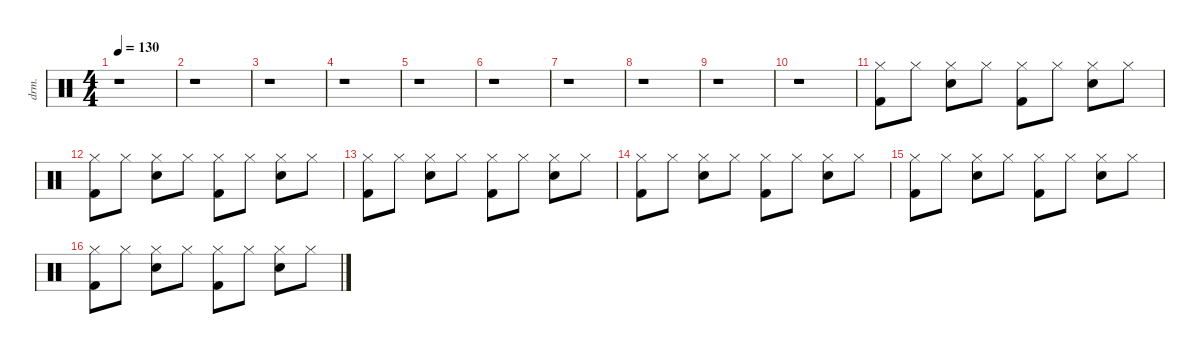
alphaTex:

\defaultSystemsLayout 4
\hideDynamics
\bracketExtendMode nobrackets
\otherSystemsTrackNameOrientation horizontal
\track ("Lars Ulrich (Drums)" "drm.") {instrument percussion}
\staff {score}
\articulation defaults
\ts (4 4)
\beaming (8 2 2 2 2)
\tempo 130
\clef neutral
\ks c
r.1{dy f beam Down} |
r.1{beam Down} |
r.1{beam Down} |
r.1{beam Down} |
r.1{beam Down} |
r.1{beam Down} |
r.1{beam Down} |
r.1{beam Down} |
r.1{beam Down} |
r.1{beam Down} |
("Kick (hit) 2" "Hi-Hat (closed)").8{beam Down} "Hi-Hat (closed)".8{beam Down} ("Snare (hit) 2" "Hi-Hat (closed)").8{beam Down} "Hi-Hat (closed)".8{beam Down} ("Kick (hit) 2" "Hi-Hat (closed)").8{beam Down} "Hi-Hat (closed)".8{beam Down} ("Snare (hit) 2" "Hi-Hat (closed)").8{beam Down} "Hi-Hat (closed)".8{beam Down} |
("Kick (hit) 2" "Hi-Hat (closed)").8{beam Down} "Hi-Hat (closed)".8{beam Down} ("Snare (hit) 2" "Hi-Hat (closed)").8{beam Down} "Hi-Hat (closed)".8{beam Down} ("Kick (hit) 2" "Hi-Hat (closed)").8{beam Down} "Hi-Hat (closed)".8{beam Down} ("Snare (hit) 2" "Hi-Hat (closed)").8{beam Down} "Hi-Hat (closed)".8{beam Down} |
("Kick (hit) 2" "Hi-Hat (closed)").8{dy mp beam Down} "Hi-Hat (closed)".8{dy f beam Down} ("Snare (hit) 2" "Hi-Hat (closed)").8{beam Down} "Hi-Hat (closed)".8{beam Down} ("Kick (hit) 2" "Hi-Hat (closed)").8{beam Down} "Hi-Hat (closed)".8{beam Down} ("Snare (hit) 2" "Hi-Hat (closed)").8{beam Down} "Hi-Hat (closed)".8{beam Down} |
("Kick (hit) 2" "Hi-Hat (closed)").8{beam Down} "Hi-Hat (closed)".8{beam Down} ("Snare (hit) 2" "Hi-Hat (closed)").8{beam Down} "Hi-Hat (closed)".8{beam Down} ("Kick (hit) 2" "Hi-Hat (closed)").8{beam Down} "Hi-Hat (closed)".8{beam Down} ("Snare (hit) 2" "Hi-Hat (closed)").8{beam Down} "Hi-Hat (closed)".8{beam Down} |
("Kick (hit) 2" "Hi-Hat (closed)").8{beam Down} "Hi-Hat (closed)".8{beam Down} ("Snare (hit) 2" "Hi-Hat (closed)").8{beam Down} "Hi-Hat (closed)".8{beam Down} ("Kick (hit) 2" "Hi-Hat (closed)").8{beam Down} "Hi-Hat (closed)".8{beam Down} ("Snare (hit) 2" "Hi-Hat (closed)").8{beam Down} "Hi-Hat (closed)".8{beam Down} |
("Kick (hit) 2" "Hi-Hat (closed)").8{beam Down} "Hi-Hat (closed)".8{beam Down} ("Snare (hit) 2" "Hi-Hat (closed)").8{beam Down} "Hi-Hat (closed)".8{beam Down} ("Kick (hit) 2" "Hi-Hat (closed)").8{beam Down} "Hi-Hat (closed)".8{beam Down} ("Snare (hit) 2" "Hi-Hat (closed)").8{beam Down} "Hi-Hat (closed)".8{beam Down}
